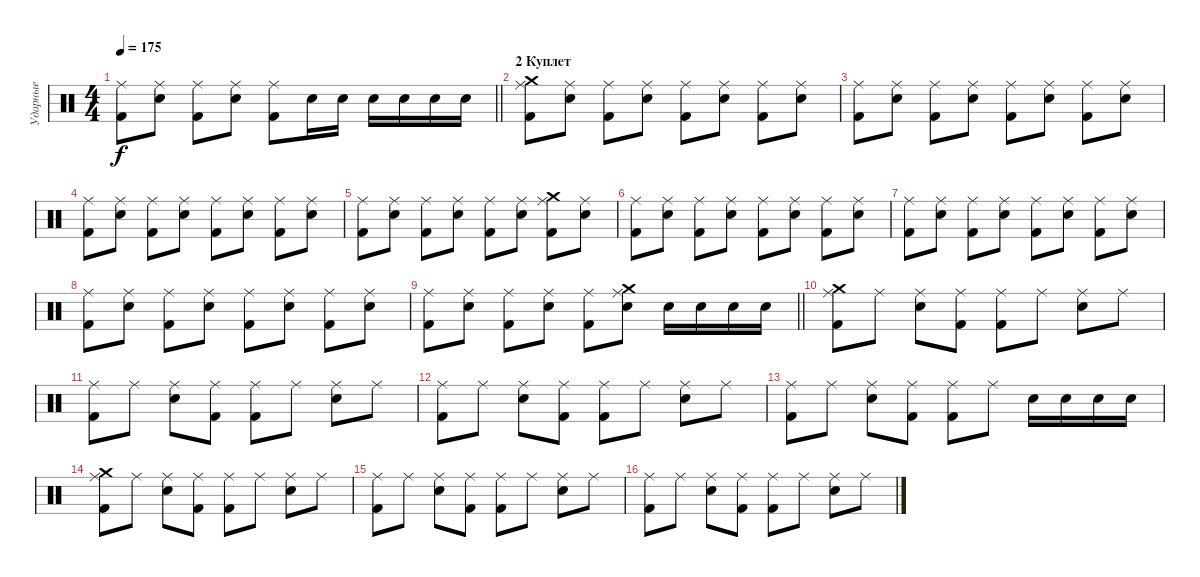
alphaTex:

\track ("Ударные" "Ударные") {instrument percussion}
\staff {score}
\articulation defaults
\ts (4 4)
\tempo 175
\clef neutral
\barLineRight lightlight
\ks c
("Ride (middle)" "Kick (hit) 2").8{dy f} ("Ride (middle)" "Electric Snare (hit)").8 ("Ride (middle)" "Kick (hit) 2").8 ("Ride (middle)" "Electric Snare (hit)").8 ("Ride (middle)" "Kick (hit) 2").8 "Electric Snare (hit)".16 "Electric Snare (hit)".16 "Electric Snare (hit)".16 "Electric Snare (hit)".16 "Electric Snare (hit)".16 "Electric Snare (hit)".16 |
\section ("" "2 Куплет")
("Ride (middle)" "Crash medium (hit)" "Kick (hit) 2").8 ("Ride (middle)" "Electric Snare (hit)").8 ("Ride (middle)" "Kick (hit) 2").8 ("Ride (middle)" "Electric Snare (hit)").8 ("Ride (middle)" "Kick (hit) 2").8 ("Ride (middle)" "Electric Snare (hit)").8 ("Ride (middle)" "Kick (hit) 2").8 ("Ride (middle)" "Electric Snare (hit)").8 |
("Ride (middle)" "Kick (hit) 2").8 ("Ride (middle)" "Electric Snare (hit)").8 ("Ride (middle)" "Kick (hit) 2").8 ("Ride (middle)" "Electric Snare (hit)").8 ("Ride (middle)" "Kick (hit) 2").8 ("Ride (middle)" "Electric Snare (hit)").8 ("Ride (middle)" "Kick (hit) 2").8 ("Ride (middle)" "Electric Snare (hit)").8 |
("Ride (middle)" "Kick (hit) 2").8 ("Ride (middle)" "Electric Snare (hit)").8 ("Ride (middle)" "Kick (hit) 2").8 ("Ride (middle)" "Electric Snare (hit)").8 ("Ride (middle)" "Kick (hit) 2").8 ("Ride (middle)" "Electric Snare (hit)").8 ("Ride (middle)" "Kick (hit) 2").8 ("Ride (middle)" "Electric Snare (hit)").8 |
("Ride (middle)" "Kick (hit) 2").8 ("Ride (middle)" "Electric Snare (hit)").8 ("Ride (middle)" "Kick (hit) 2").8 ("Ride (middle)" "Electric Snare (hit)").8 ("Ride (middle)" "Kick (hit) 2").8 ("Ride (middle)" "Electric Snare (hit)").8 ("Ride (middle)" "Crash medium (hit)" "Kick (hit) 2").8 ("Ride (middle)" "Electric Snare (hit)").8 |
("Ride (middle)" "Kick (hit) 2").8 ("Ride (middle)" "Electric Snare (hit)").8 ("Ride (middle)" "Kick (hit) 2").8 ("Ride (middle)" "Electric Snare (hit)").8 ("Ride (middle)" "Kick (hit) 2").8 ("Ride (middle)" "Electric Snare (hit)").8 ("Ride (middle)" "Kick (hit) 2").8 ("Ride (middle)" "Electric Snare (hit)").8 |
("Ride (middle)" "Kick (hit) 2").8 ("Ride (middle)" "Electric Snare (hit)").8 ("Ride (middle)" "Kick (hit) 2").8 ("Ride (middle)" "Electric Snare (hit)").8 ("Ride (middle)" "Kick (hit) 2").8 ("Ride (middle)" "Electric Snare (hit)").8 ("Ride (middle)" "Kick (hit) 2").8 ("Ride (middle)" "Electric Snare (hit)").8 |
("Ride (middle)" "Kick (hit) 2").8 ("Ride (middle)" "Electric Snare (hit)").8 ("Ride (middle)" "Kick (hit) 2").8 ("Ride (middle)" "Electric Snare (hit)").8 ("Ride (middle)" "Kick (hit) 2").8 ("Ride (middle)" "Electric Snare (hit)").8 ("Ride (middle)" "Kick (hit) 2").8 ("Ride (middle)" "Electric Snare (hit)").8 |
\barLineRight lightlight
("Ride (middle)" "Kick (hit) 2").8 ("Ride (middle)" "Electric Snare (hit)").8 ("Ride (middle)" "Kick (hit) 2").8 ("Ride (middle)" "Electric Snare (hit)").8 ("Ride (middle)" "Kick (hit) 2").8 ("Ride (middle)" "Crash medium (hit)" "Electric Snare (hit)").8 "Electric Snare (hit)".16 "Electric Snare (hit)".16 "Electric Snare (hit)".16 "Electric Snare (hit)".16 |
("Ride (middle)" "Crash medium (hit)" "Kick (hit) 2").8 "Ride (middle)".8 ("Ride (middle)" "Electric Snare (hit)").8 ("Ride (middle)" "Kick (hit) 2").8 ("Ride (middle)" "Kick (hit) 2").8 "Ride (middle)".8 ("Ride (middle)" "Electric Snare (hit)").8 "Ride (middle)".8 |
("Ride (middle)" "Kick (hit) 2").8 "Ride (middle)".8 ("Ride (middle)" "Electric Snare (hit)").8 ("Ride (middle)" "Kick (hit) 2").8 ("Ride (middle)" "Kick (hit) 2").8 "Ride (middle)".8 ("Ride (middle)" "Electric Snare (hit)").8 "Ride (middle)".8 |
("Ride (middle)" "Kick (hit) 2").8 "Ride (middle)".8 ("Ride (middle)" "Electric Snare (hit)").8 ("Ride (middle)" "Kick (hit) 2").8 ("Ride (middle)" "Kick (hit) 2").8 "Ride (middle)".8 ("Ride (middle)" "Electric Snare (hit)").8 "Ride (middle)".8 |
("Ride (middle)" "Kick (hit) 2").8 "Ride (middle)".8 ("Ride (middle)" "Electric Snare (hit)").8 ("Ride (middle)" "Kick (hit) 2").8 ("Ride (middle)" "Kick (hit) 2").8 "Ride (middle)".8 "Electric Snare (hit)".16 "Electric Snare (hit)".16 "Electric Snare (hit)".16 "Electric Snare (hit)".16 |
("Ride (middle)" "Crash medium (hit)" "Kick (hit) 2").8 "Ride (middle)".8 ("Ride (middle)" "Electric Snare (hit)").8 ("Ride (middle)" "Kick (hit) 2").8 ("Ride (middle)" "Kick (hit) 2").8 "Ride (middle)".8 ("Ride (middle)" "Electric Snare (hit)").8 "Ride (middle)".8 |
("Ride (middle)" "Kick (hit) 2").8 "Ride (middle)".8 ("Ride (middle)" "Electric Snare (hit)").8 ("Ride (middle)" "Kick (hit) 2").8 ("Ride (middle)" "Kick (hit) 2").8 "Ride (middle)".8 ("Ride (middle)" "Electric Snare (hit)").8 "Ride (middle)".8 |
("Ride (middle)" "Kick (hit) 2").8 "Ride (middle)".8 ("Ride (middle)" "Electric Snare (hit)").8 ("Ride (middle)" "Kick (hit) 2").8 ("Ride (middle)" "Kick (hit) 2").8 "Ride (middle)".8 ("Ride (middle)" "Electric Snare (hit)").8 "Ride (middle)".8
